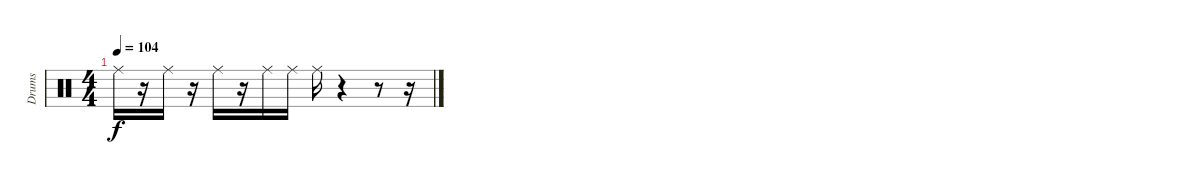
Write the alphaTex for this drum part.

\track ("Drums" "Drums") {instrument percussion}
\staff {score}
\articulation defaults
\ts (4 4)
\tempo 104
\clef neutral
\ks c "Ride (middle)".16{dy f}
r.16 "Ride (middle)".16 r.16 "Ride (middle)".16 r.16 "Ride (middle)".16 "Ride (middle)".16 "Ride (middle)".16 r.4 r.8 r.16
